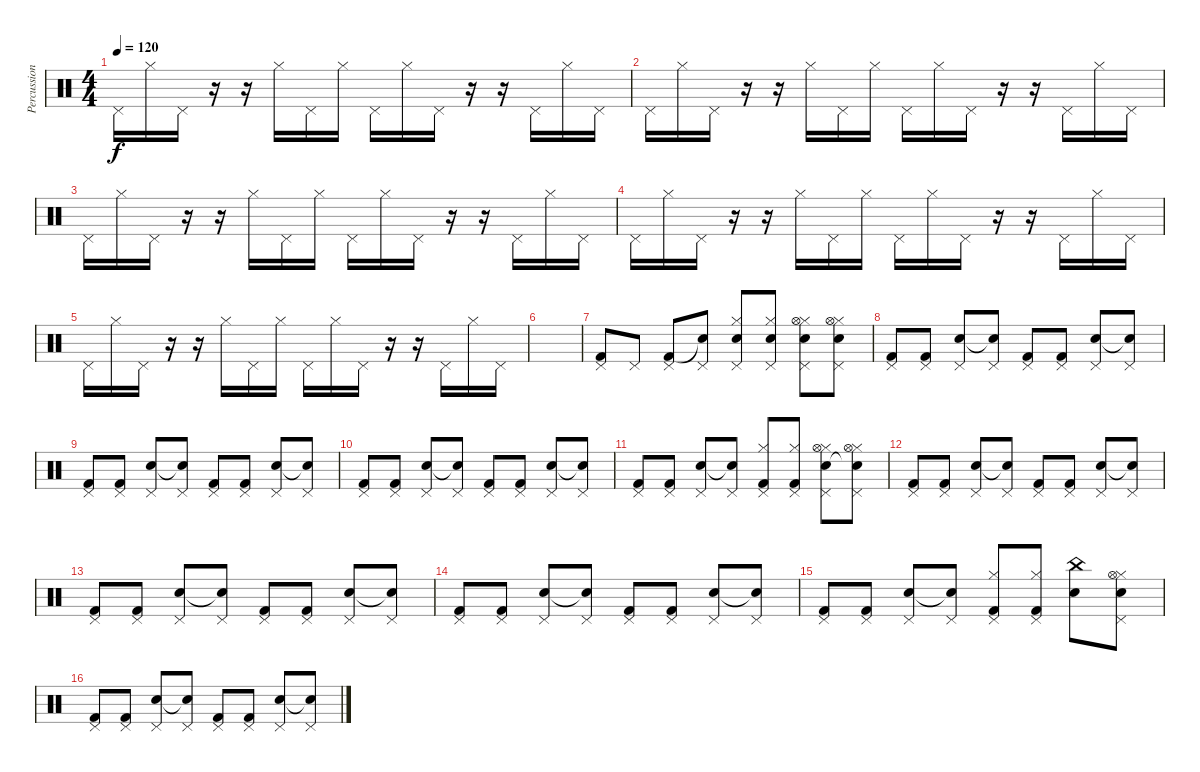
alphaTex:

\track ("Percussions" "Percussion") {instrument percussion}
\staff {score}
\articulation defaults
\ts (4 4)
\tempo 120
\clef neutral
\ks c "Pedal Hi-Hat (hit)".16{dy f} "Hi-Hat (closed)".16 "Pedal Hi-Hat (hit)".16
r.16 r.16 "Hi-Hat (closed)".16 "Pedal Hi-Hat (hit)".16 "Hi-Hat (closed)".16 "Pedal Hi-Hat (hit)".16 "Hi-Hat (closed)".16 "Pedal Hi-Hat (hit)".16 r.16 r.16 "Pedal Hi-Hat (hit)".16 "Hi-Hat (closed)".16 "Pedal Hi-Hat (hit)".16 |
"Pedal Hi-Hat (hit)".16 "Hi-Hat (closed)".16 "Pedal Hi-Hat (hit)".16 r.16 r.16 "Hi-Hat (closed)".16 "Pedal Hi-Hat (hit)".16 "Hi-Hat (closed)".16 "Pedal Hi-Hat (hit)".16 "Hi-Hat (closed)".16 "Pedal Hi-Hat (hit)".16 r.16 r.16 "Pedal Hi-Hat (hit)".16 "Hi-Hat (closed)".16 "Pedal Hi-Hat (hit)".16 |
"Pedal Hi-Hat (hit)".16 "Hi-Hat (closed)".16 "Pedal Hi-Hat (hit)".16 r.16 r.16 "Hi-Hat (closed)".16 "Pedal Hi-Hat (hit)".16 "Hi-Hat (closed)".16 "Pedal Hi-Hat (hit)".16 "Hi-Hat (closed)".16 "Pedal Hi-Hat (hit)".16 r.16 r.16 "Pedal Hi-Hat (hit)".16 "Hi-Hat (closed)".16 "Pedal Hi-Hat (hit)".16 |
"Pedal Hi-Hat (hit)".16 "Hi-Hat (closed)".16 "Pedal Hi-Hat (hit)".16 r.16 r.16 "Hi-Hat (closed)".16 "Pedal Hi-Hat (hit)".16 "Hi-Hat (closed)".16 "Pedal Hi-Hat (hit)".16 "Hi-Hat (closed)".16 "Pedal Hi-Hat (hit)".16 r.16 r.16 "Pedal Hi-Hat (hit)".16 "Hi-Hat (closed)".16 "Pedal Hi-Hat (hit)".16 |
"Pedal Hi-Hat (hit)".16 "Hi-Hat (closed)".16 "Pedal Hi-Hat (hit)".16 r.16 r.16 "Hi-Hat (closed)".16 "Pedal Hi-Hat (hit)".16 "Hi-Hat (closed)".16 "Pedal Hi-Hat (hit)".16 "Hi-Hat (closed)".16 "Pedal Hi-Hat (hit)".16 r.16 r.16 "Pedal Hi-Hat (hit)".16 "Hi-Hat (closed)".16 "Pedal Hi-Hat (hit)".16 |
|
("Pedal Hi-Hat (hit)" "Kick (hit) 2").8 "Pedal Hi-Hat (hit)".8 ("Pedal Hi-Hat (hit)" "Kick (hit) 2").8 ("Pedal Hi-Hat (hit)" "Snare (hit)"{t}).8 ("Pedal Hi-Hat (hit)" "Hi-Hat (closed)" "Snare (hit) 2").8 ("Pedal Hi-Hat (hit)" "Hi-Hat (closed)" "Snare (hit) 2").8 ("Pedal Hi-Hat (hit)" "Hi-Hat (closed)" "Hi-Hat (open)" "Snare (hit) 2").8 ("Pedal Hi-Hat (hit)" "Hi-Hat (closed)" "Hi-Hat (open)" "Snare (hit) 2").8 |
("Pedal Hi-Hat (hit)" "Kick (hit) 2").8 ("Pedal Hi-Hat (hit)" "Kick (hit) 2").8 ("Pedal Hi-Hat (hit)" "Snare (hit) 2").8 ("Pedal Hi-Hat (hit)" "Snare (hit)"{t}).8 ("Pedal Hi-Hat (hit)" "Kick (hit) 2").8 ("Pedal Hi-Hat (hit)" "Kick (hit) 2").8 ("Pedal Hi-Hat (hit)" "Snare (hit) 2").8 ("Pedal Hi-Hat (hit)" "Snare (hit)"{t}).8 |
("Pedal Hi-Hat (hit)" "Kick (hit) 2").8 ("Pedal Hi-Hat (hit)" "Kick (hit) 2").8 ("Pedal Hi-Hat (hit)" "Snare (hit) 2").8 ("Pedal Hi-Hat (hit)" "Snare (hit)"{t}).8 ("Pedal Hi-Hat (hit)" "Kick (hit) 2").8 ("Pedal Hi-Hat (hit)" "Kick (hit) 2").8 ("Pedal Hi-Hat (hit)" "Snare (hit) 2").8 ("Pedal Hi-Hat (hit)" "Snare (hit)"{t}).8 |
("Pedal Hi-Hat (hit)" "Kick (hit) 2").8 ("Pedal Hi-Hat (hit)" "Kick (hit) 2").8 ("Pedal Hi-Hat (hit)" "Snare (hit) 2").8 ("Pedal Hi-Hat (hit)" "Snare (hit)"{t}).8 ("Pedal Hi-Hat (hit)" "Kick (hit) 2").8 ("Pedal Hi-Hat (hit)" "Kick (hit) 2").8 ("Pedal Hi-Hat (hit)" "Snare (hit) 2").8 ("Pedal Hi-Hat (hit)" "Snare (hit)"{t}).8 |
("Pedal Hi-Hat (hit)" "Kick (hit) 2").8 ("Pedal Hi-Hat (hit)" "Kick (hit) 2").8 ("Pedal Hi-Hat (hit)" "Snare (hit) 2").8 ("Pedal Hi-Hat (hit)" "Snare (hit)"{t}).8 ("Pedal Hi-Hat (hit)" "Hi-Hat (closed)" "Kick (hit) 2").8 ("Pedal Hi-Hat (hit)" "Hi-Hat (closed)" "Kick (hit) 2").8 ("Pedal Hi-Hat (hit)" "Hi-Hat (closed)" "Hi-Hat (open)" "Snare (hit) 2").8 ("Pedal Hi-Hat (hit)" "Hi-Hat (closed)" "Hi-Hat (open)" "Snare (hit)"{t}).8 |
("Pedal Hi-Hat (hit)" "Kick (hit) 2").8 ("Pedal Hi-Hat (hit)" "Kick (hit) 2").8 ("Pedal Hi-Hat (hit)" "Snare (hit) 2").8 ("Pedal Hi-Hat (hit)" "Snare (hit)"{t}).8 ("Pedal Hi-Hat (hit)" "Kick (hit) 2").8 ("Pedal Hi-Hat (hit)" "Kick (hit) 2").8 ("Pedal Hi-Hat (hit)" "Snare (hit) 2").8 ("Pedal Hi-Hat (hit)" "Snare (hit)"{t}).8 |
("Pedal Hi-Hat (hit)" "Kick (hit) 2").8 ("Pedal Hi-Hat (hit)" "Kick (hit) 2").8 ("Pedal Hi-Hat (hit)" "Snare (hit) 2").8 ("Pedal Hi-Hat (hit)" "Snare (hit)"{t}).8 ("Pedal Hi-Hat (hit)" "Kick (hit) 2").8 ("Pedal Hi-Hat (hit)" "Kick (hit) 2").8 ("Pedal Hi-Hat (hit)" "Snare (hit) 2").8 ("Pedal Hi-Hat (hit)" "Snare (hit)"{t}).8 |
("Pedal Hi-Hat (hit)" "Kick (hit) 2").8 ("Pedal Hi-Hat (hit)" "Kick (hit) 2").8 ("Pedal Hi-Hat (hit)" "Snare (hit) 2").8 ("Pedal Hi-Hat (hit)" "Snare (hit)"{t}).8 ("Pedal Hi-Hat (hit)" "Kick (hit) 2").8 ("Pedal Hi-Hat (hit)" "Kick (hit) 2").8 ("Pedal Hi-Hat (hit)" "Snare (hit) 2").8 ("Pedal Hi-Hat (hit)" "Snare (hit)"{t}).8 |
("Pedal Hi-Hat (hit)" "Kick (hit) 2").8 ("Pedal Hi-Hat (hit)" "Kick (hit) 2").8 ("Pedal Hi-Hat (hit)" "Snare (hit) 2").8 ("Pedal Hi-Hat (hit)" "Snare (hit)"{t}).8 ("Pedal Hi-Hat (hit)" "Hi-Hat (closed)" "Kick (hit) 2").8 ("Pedal Hi-Hat (hit)" "Hi-Hat (closed)" "Kick (hit) 2").8 ("China (hit)" "Snare (hit) 2").8 ("Pedal Hi-Hat (hit)" "Hi-Hat (closed)" "Hi-Hat (open)" "Snare (hit)").8 |
("Pedal Hi-Hat (hit)" "Kick (hit) 2").8 ("Pedal Hi-Hat (hit)" "Kick (hit) 2").8 ("Pedal Hi-Hat (hit)" "Snare (hit) 2").8 ("Pedal Hi-Hat (hit)" "Snare (hit)"{t}).8 ("Pedal Hi-Hat (hit)" "Kick (hit) 2").8 ("Pedal Hi-Hat (hit)" "Kick (hit) 2").8 ("Pedal Hi-Hat (hit)" "Snare (hit) 2").8 ("Pedal Hi-Hat (hit)" "Snare (hit)"{t}).8
